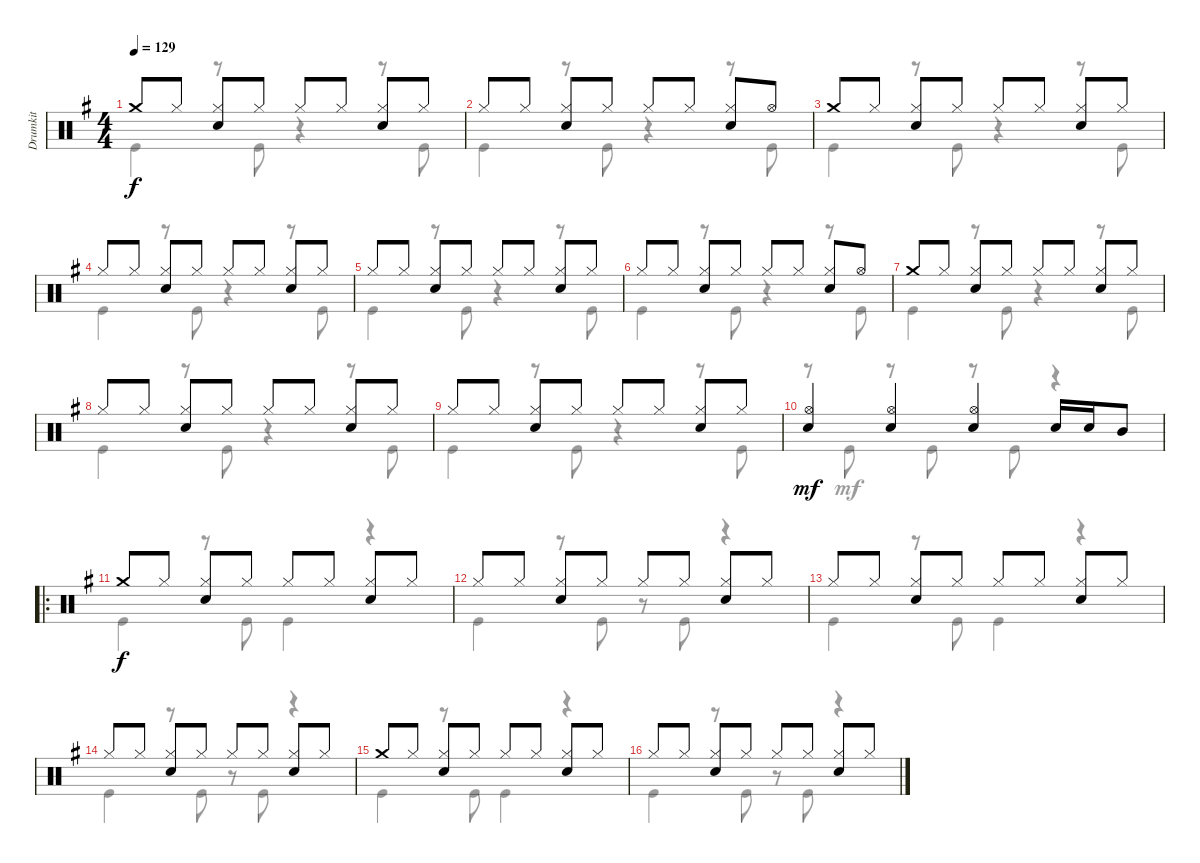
\track ("Drumkit" "Drumkit") {instrument percussion}
\staff {score}
\articulation defaults
\voice
\ts (4 4)
\tempo 129
\clef neutral
\ks g "Crash medium (hit)".8{dy f} "Hi-Hat (closed)".8
("Hi-Hat (closed)" "Snare (hit) 2").8 "Hi-Hat (closed)".8 "Hi-Hat (closed)".8 "Hi-Hat (closed)".8 ("Hi-Hat (closed)" "Snare (hit) 2").8 "Hi-Hat (closed)".8 |
"Hi-Hat (closed)".8 "Hi-Hat (closed)".8 ("Hi-Hat (closed)" "Snare (hit) 2").8 "Hi-Hat (closed)".8 "Hi-Hat (closed)".8 "Hi-Hat (closed)".8 ("Hi-Hat (closed)" "Snare (hit) 2").8 "Hi-Hat (open)".8 |
"Crash medium (hit)".8 "Hi-Hat (closed)".8 ("Hi-Hat (closed)" "Snare (hit) 2").8 "Hi-Hat (closed)".8 "Hi-Hat (closed)".8 "Hi-Hat (closed)".8 ("Hi-Hat (closed)" "Snare (hit) 2").8 "Hi-Hat (closed)".8 |
"Hi-Hat (closed)".8 "Hi-Hat (closed)".8 ("Hi-Hat (closed)" "Snare (hit) 2").8 "Hi-Hat (closed)".8 "Hi-Hat (closed)".8 "Hi-Hat (closed)".8 ("Hi-Hat (closed)" "Snare (hit) 2").8 "Hi-Hat (closed)".8 |
"Hi-Hat (closed)".8 "Hi-Hat (closed)".8 ("Hi-Hat (closed)" "Snare (hit) 2").8 "Hi-Hat (closed)".8 "Hi-Hat (closed)".8 "Hi-Hat (closed)".8 ("Hi-Hat (closed)" "Snare (hit) 2").8 "Hi-Hat (closed)".8 |
"Hi-Hat (closed)".8 "Hi-Hat (closed)".8 ("Hi-Hat (closed)" "Snare (hit) 2").8 "Hi-Hat (closed)".8 "Hi-Hat (closed)".8 "Hi-Hat (closed)".8 ("Hi-Hat (closed)" "Snare (hit) 2").8 "Hi-Hat (open)".8 |
"Crash medium (hit)".8 "Hi-Hat (closed)".8 ("Hi-Hat (closed)" "Snare (hit) 2").8 "Hi-Hat (closed)".8 "Hi-Hat (closed)".8 "Hi-Hat (closed)".8 ("Hi-Hat (closed)" "Snare (hit) 2").8 "Hi-Hat (closed)".8 |
"Hi-Hat (closed)".8 "Hi-Hat (closed)".8 ("Hi-Hat (closed)" "Snare (hit) 2").8 "Hi-Hat (closed)".8 "Hi-Hat (closed)".8 "Hi-Hat (closed)".8 ("Hi-Hat (closed)" "Snare (hit) 2").8 "Hi-Hat (closed)".8 |
"Hi-Hat (closed)".8 "Hi-Hat (closed)".8 ("Hi-Hat (closed)" "Snare (hit) 2").8 "Hi-Hat (closed)".8 "Hi-Hat (closed)".8 "Hi-Hat (closed)".8 ("Hi-Hat (closed)" "Snare (hit) 2").8 "Hi-Hat (closed)".8 |
("Snare (hit) 2" "Hi-Hat (open)").4{dy mf} ("Snare (hit) 2" "Hi-Hat (open)").4 ("Snare (hit) 2" "Hi-Hat (open)").4 "Snare (hit) 2".16 "Snare (hit) 2".16 "Mid Tom (hit)".8 |
\ro "Crash medium (hit)".8{dy f} "Hi-Hat (closed)".8
("Hi-Hat (closed)" "Snare (hit) 2").8 "Hi-Hat (closed)".8 "Hi-Hat (closed)".8 "Hi-Hat (closed)".8 ("Hi-Hat (closed)" "Snare (hit) 2").8 "Hi-Hat (closed)".8 |
"Hi-Hat (closed)".8 "Hi-Hat (closed)".8 ("Hi-Hat (closed)" "Snare (hit) 2").8 "Hi-Hat (closed)".8 "Hi-Hat (closed)".8 "Hi-Hat (closed)".8 ("Hi-Hat (closed)" "Snare (hit) 2").8 "Hi-Hat (closed)".8 |
"Hi-Hat (closed)".8 "Hi-Hat (closed)".8 ("Hi-Hat (closed)" "Snare (hit) 2").8 "Hi-Hat (closed)".8 "Hi-Hat (closed)".8 "Hi-Hat (closed)".8 ("Hi-Hat (closed)" "Snare (hit) 2").8 "Hi-Hat (closed)".8 |
"Hi-Hat (closed)".8 "Hi-Hat (closed)".8 ("Hi-Hat (closed)" "Snare (hit) 2").8 "Hi-Hat (closed)".8 "Hi-Hat (closed)".8 "Hi-Hat (closed)".8 ("Hi-Hat (closed)" "Snare (hit) 2").8 "Hi-Hat (closed)".8 |
"Crash medium (hit)".8 "Hi-Hat (closed)".8 ("Hi-Hat (closed)" "Snare (hit) 2").8 "Hi-Hat (closed)".8 "Hi-Hat (closed)".8 "Hi-Hat (closed)".8 ("Hi-Hat (closed)" "Snare (hit) 2").8 "Hi-Hat (closed)".8 |
"Hi-Hat (closed)".8 "Hi-Hat (closed)".8 ("Hi-Hat (closed)" "Snare (hit) 2").8 "Hi-Hat (closed)".8 "Hi-Hat (closed)".8 "Hi-Hat (closed)".8 ("Hi-Hat (closed)" "Snare (hit) 2").8 "Hi-Hat (closed)".8
\voice
\clef neutral
\ottava regular
\simile none
\ks g "Kick (hit)".4{dy f}
r.8 "Kick (hit)".8 r.4 r.8 "Kick (hit)".8 |
"Kick (hit)".4 r.8 "Kick (hit)".8 r.4 r.8 "Kick (hit)".8 |
"Kick (hit)".4 r.8 "Kick (hit)".8 r.4 r.8 "Kick (hit)".8 |
"Kick (hit)".4 r.8 "Kick (hit)".8 r.4 r.8 "Kick (hit)".8 |
"Kick (hit)".4 r.8 "Kick (hit)".8 r.4 r.8 "Kick (hit)".8 |
"Kick (hit)".4 r.8 "Kick (hit)".8 r.4 r.8 "Kick (hit)".8 |
"Kick (hit)".4 r.8 "Kick (hit)".8 r.4 r.8 "Kick (hit)".8 |
"Kick (hit)".4 r.8 "Kick (hit)".8 r.4 r.8 "Kick (hit)".8 |
"Kick (hit)".4 r.8 "Kick (hit)".8 r.4 r.8 "Kick (hit)".8 |
r.8 "Kick (hit)".8{dy mf} r.8 "Kick (hit)".8 r.8 "Kick (hit)".8 r.4 |
"Kick (hit)".4{dy f} r.8 "Kick (hit)".8 "Kick (hit)".4 r.4 |
"Kick (hit)".4 r.8 "Kick (hit)".8 r.8 "Kick (hit)".8 r.4 |
"Kick (hit)".4 r.8 "Kick (hit)".8 "Kick (hit)".4 r.4 |
"Kick (hit)".4 r.8 "Kick (hit)".8 r.8 "Kick (hit)".8 r.4 |
"Kick (hit)".4 r.8 "Kick (hit)".8 "Kick (hit)".4 r.4 |
"Kick (hit)".4 r.8 "Kick (hit)".8 r.8 "Kick (hit)".8 r.4
